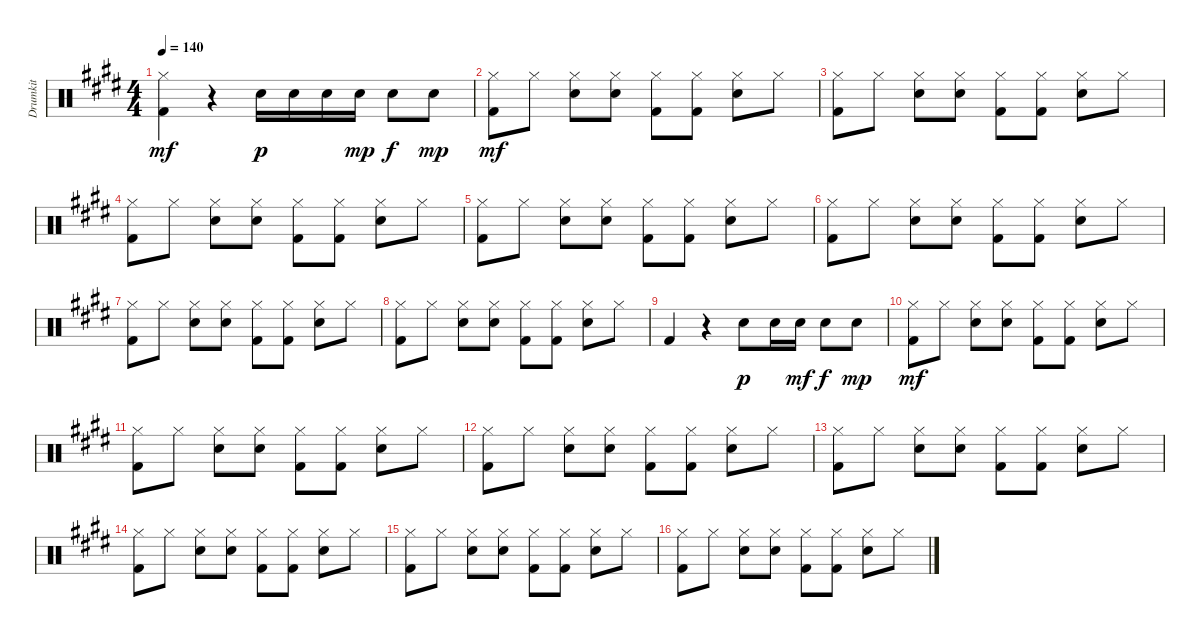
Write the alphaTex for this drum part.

\track ("Drumkit" "Drumkit") {instrument percussion}
\staff {score}
\articulation defaults
\ts (4 4)
\tempo 140
\clef neutral
\ks e
("Hi-Hat (closed)" "Kick (hit) 2").4{dy mf} r.4 "Snare (hit) 2".16{dy p} "Snare (hit) 2".16 "Snare (hit) 2".16 "Snare (hit) 2".16{dy mp} "Snare (hit) 2".8{dy f} "Snare (hit) 2".8{dy mp} |
("Hi-Hat (closed)" "Kick (hit) 2").8{dy mf} "Hi-Hat (closed)".8 ("Hi-Hat (closed)" "Snare (hit) 2").8 ("Hi-Hat (closed)" "Snare (hit) 2").8 ("Hi-Hat (closed)" "Kick (hit) 2").8 ("Hi-Hat (closed)" "Kick (hit) 2").8 ("Hi-Hat (closed)" "Snare (hit) 2").8 "Hi-Hat (closed)".8 |
("Hi-Hat (closed)" "Kick (hit) 2").8 "Hi-Hat (closed)".8 ("Hi-Hat (closed)" "Snare (hit) 2").8 ("Hi-Hat (closed)" "Snare (hit) 2").8 ("Hi-Hat (closed)" "Kick (hit) 2").8 ("Hi-Hat (closed)" "Kick (hit) 2").8 ("Hi-Hat (closed)" "Snare (hit) 2").8 "Hi-Hat (closed)".8 |
("Hi-Hat (closed)" "Kick (hit) 2").8 "Hi-Hat (closed)".8 ("Hi-Hat (closed)" "Snare (hit) 2").8 ("Hi-Hat (closed)" "Snare (hit) 2").8 ("Hi-Hat (closed)" "Kick (hit) 2").8 ("Hi-Hat (closed)" "Kick (hit) 2").8 ("Hi-Hat (closed)" "Snare (hit) 2").8 "Hi-Hat (closed)".8 |
("Hi-Hat (closed)" "Kick (hit) 2").8 "Hi-Hat (closed)".8 ("Hi-Hat (closed)" "Snare (hit) 2").8 ("Hi-Hat (closed)" "Snare (hit) 2").8 ("Hi-Hat (closed)" "Kick (hit) 2").8 ("Hi-Hat (closed)" "Kick (hit) 2").8 ("Hi-Hat (closed)" "Snare (hit) 2").8 "Hi-Hat (closed)".8 |
("Hi-Hat (closed)" "Kick (hit) 2").8 "Hi-Hat (closed)".8 ("Hi-Hat (closed)" "Snare (hit) 2").8 ("Hi-Hat (closed)" "Snare (hit) 2").8 ("Hi-Hat (closed)" "Kick (hit) 2").8 ("Hi-Hat (closed)" "Kick (hit) 2").8 ("Hi-Hat (closed)" "Snare (hit) 2").8 "Hi-Hat (closed)".8 |
("Hi-Hat (closed)" "Kick (hit) 2").8 "Hi-Hat (closed)".8 ("Hi-Hat (closed)" "Snare (hit) 2").8 ("Hi-Hat (closed)" "Snare (hit) 2").8 ("Hi-Hat (closed)" "Kick (hit) 2").8 ("Hi-Hat (closed)" "Kick (hit) 2").8 ("Hi-Hat (closed)" "Snare (hit) 2").8 "Hi-Hat (closed)".8 |
("Hi-Hat (closed)" "Kick (hit) 2").8 "Hi-Hat (closed)".8 ("Hi-Hat (closed)" "Snare (hit) 2").8 ("Hi-Hat (closed)" "Snare (hit) 2").8 ("Hi-Hat (closed)" "Kick (hit) 2").8 ("Hi-Hat (closed)" "Kick (hit) 2").8 ("Hi-Hat (closed)" "Snare (hit) 2").8 "Hi-Hat (closed)".8 |
"Kick (hit) 2".4 r.4 "Snare (hit) 2".8{dy p} "Snare (hit) 2".16 "Snare (hit) 2".16{dy mf} "Snare (hit) 2".8{dy f} "Snare (hit) 2".8{dy mp} |
("Hi-Hat (closed)" "Kick (hit) 2").8{dy mf} "Hi-Hat (closed)".8 ("Hi-Hat (closed)" "Snare (hit) 2").8 ("Hi-Hat (closed)" "Snare (hit) 2").8 ("Hi-Hat (closed)" "Kick (hit) 2").8 ("Hi-Hat (closed)" "Kick (hit) 2").8 ("Hi-Hat (closed)" "Snare (hit) 2").8 "Hi-Hat (closed)".8 |
("Hi-Hat (closed)" "Kick (hit) 2").8 "Hi-Hat (closed)".8 ("Hi-Hat (closed)" "Snare (hit) 2").8 ("Hi-Hat (closed)" "Snare (hit) 2").8 ("Hi-Hat (closed)" "Kick (hit) 2").8 ("Hi-Hat (closed)" "Kick (hit) 2").8 ("Hi-Hat (closed)" "Snare (hit) 2").8 "Hi-Hat (closed)".8 |
("Hi-Hat (closed)" "Kick (hit) 2").8 "Hi-Hat (closed)".8 ("Hi-Hat (closed)" "Snare (hit) 2").8 ("Hi-Hat (closed)" "Snare (hit) 2").8 ("Hi-Hat (closed)" "Kick (hit) 2").8 ("Hi-Hat (closed)" "Kick (hit) 2").8 ("Hi-Hat (closed)" "Snare (hit) 2").8 "Hi-Hat (closed)".8 |
("Hi-Hat (closed)" "Kick (hit) 2").8 "Hi-Hat (closed)".8 ("Hi-Hat (closed)" "Snare (hit) 2").8 ("Hi-Hat (closed)" "Snare (hit) 2").8 ("Hi-Hat (closed)" "Kick (hit) 2").8 ("Hi-Hat (closed)" "Kick (hit) 2").8 ("Hi-Hat (closed)" "Snare (hit) 2").8 "Hi-Hat (closed)".8 |
("Hi-Hat (closed)" "Kick (hit) 2").8 "Hi-Hat (closed)".8 ("Hi-Hat (closed)" "Snare (hit) 2").8 ("Hi-Hat (closed)" "Snare (hit) 2").8 ("Hi-Hat (closed)" "Kick (hit) 2").8 ("Hi-Hat (closed)" "Kick (hit) 2").8 ("Hi-Hat (closed)" "Snare (hit) 2").8 "Hi-Hat (closed)".8 |
("Hi-Hat (closed)" "Kick (hit) 2").8 "Hi-Hat (closed)".8 ("Hi-Hat (closed)" "Snare (hit) 2").8 ("Hi-Hat (closed)" "Snare (hit) 2").8 ("Hi-Hat (closed)" "Kick (hit) 2").8 ("Hi-Hat (closed)" "Kick (hit) 2").8 ("Hi-Hat (closed)" "Snare (hit) 2").8 "Hi-Hat (closed)".8 |
("Hi-Hat (closed)" "Kick (hit) 2").8 "Hi-Hat (closed)".8 ("Hi-Hat (closed)" "Snare (hit) 2").8 ("Hi-Hat (closed)" "Snare (hit) 2").8 ("Hi-Hat (closed)" "Kick (hit) 2").8 ("Hi-Hat (closed)" "Kick (hit) 2").8 ("Hi-Hat (closed)" "Snare (hit) 2").8 "Hi-Hat (closed)".8
